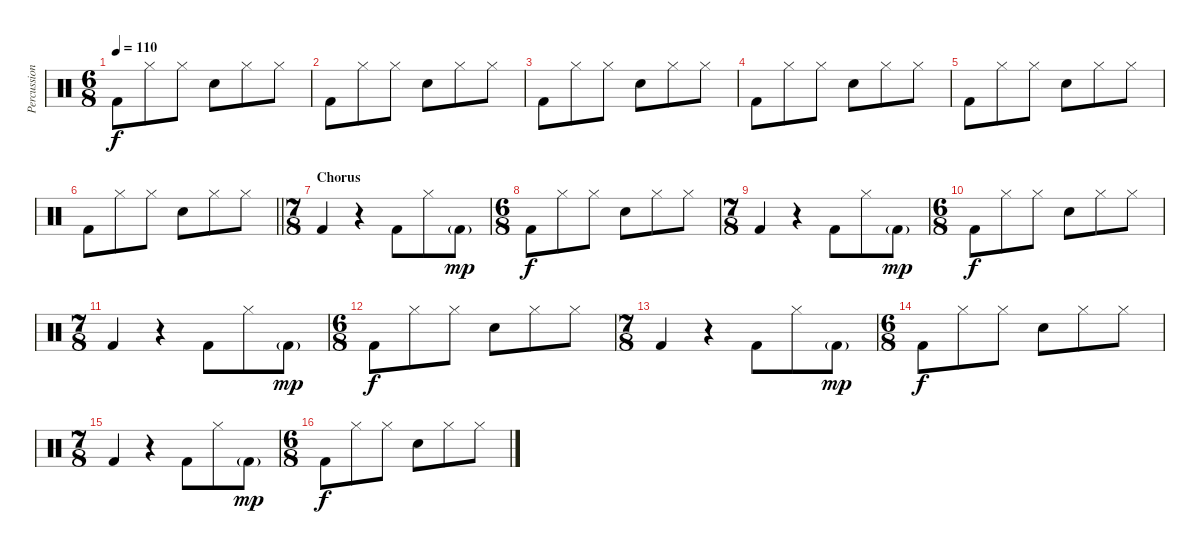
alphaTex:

\track ("Percussion" "Percussion") {instrument percussion}
\staff {score}
\articulation defaults
\ts (6 8)
\tempo 110
\clef neutral
\ks c "Kick (hit) 2".8{dy f} "Hi-Hat (closed)".8 "Hi-Hat (closed)".8 "Snare (hit) 2".8 "Hi-Hat (closed)".8 "Hi-Hat (closed)".8
|
"Kick (hit) 2".8 "Hi-Hat (closed)".8 "Hi-Hat (closed)".8 "Snare (hit) 2".8 "Hi-Hat (closed)".8 "Hi-Hat (closed)".8 |
"Kick (hit) 2".8 "Hi-Hat (closed)".8 "Hi-Hat (closed)".8 "Snare (hit) 2".8 "Hi-Hat (closed)".8 "Hi-Hat (closed)".8 |
"Kick (hit) 2".8 "Hi-Hat (closed)".8 "Hi-Hat (closed)".8 "Snare (hit) 2".8 "Hi-Hat (closed)".8 "Hi-Hat (closed)".8 |
"Kick (hit) 2".8 "Hi-Hat (closed)".8 "Hi-Hat (closed)".8 "Snare (hit) 2".8 "Hi-Hat (closed)".8 "Hi-Hat (closed)".8 |
\barLineRight lightlight "Kick (hit) 2".8 "Hi-Hat (closed)".8 "Hi-Hat (closed)".8 "Snare (hit) 2".8 "Hi-Hat (closed)".8 "Hi-Hat (closed)".8
|
\ts (7 8)
\section ("" "Chorus")
"Kick (hit) 2".4 r.4 "Kick (hit) 2".8 "Hi-Hat (closed)".8 "Kick (hit) 2"{g}.8{dy mp} |
\ts (6 8)
"Kick (hit) 2".8{dy f} "Hi-Hat (closed)".8 "Hi-Hat (closed)".8 "Snare (hit) 2".8 "Hi-Hat (closed)".8 "Hi-Hat (closed)".8 |
\ts (7 8)
"Kick (hit) 2".4 r.4 "Kick (hit) 2".8 "Hi-Hat (closed)".8 "Kick (hit) 2"{g}.8{dy mp} |
\ts (6 8)
"Kick (hit) 2".8{dy f} "Hi-Hat (closed)".8 "Hi-Hat (closed)".8 "Snare (hit) 2".8 "Hi-Hat (closed)".8 "Hi-Hat (closed)".8 |
\ts (7 8)
"Kick (hit) 2".4 r.4 "Kick (hit) 2".8 "Hi-Hat (closed)".8 "Kick (hit) 2"{g}.8{dy mp} |
\ts (6 8)
"Kick (hit) 2".8{dy f} "Hi-Hat (closed)".8 "Hi-Hat (closed)".8 "Snare (hit) 2".8 "Hi-Hat (closed)".8 "Hi-Hat (closed)".8 |
\ts (7 8)
"Kick (hit) 2".4 r.4 "Kick (hit) 2".8 "Hi-Hat (closed)".8 "Kick (hit) 2"{g}.8{dy mp} |
\ts (6 8)
"Kick (hit) 2".8{dy f} "Hi-Hat (closed)".8 "Hi-Hat (closed)".8 "Snare (hit) 2".8 "Hi-Hat (closed)".8 "Hi-Hat (closed)".8 |
\ts (7 8)
"Kick (hit) 2".4 r.4 "Kick (hit) 2".8 "Hi-Hat (closed)".8 "Kick (hit) 2"{g}.8{dy mp} |
\ts (6 8)
"Kick (hit) 2".8{dy f} "Hi-Hat (closed)".8 "Hi-Hat (closed)".8 "Snare (hit) 2".8 "Hi-Hat (closed)".8 "Hi-Hat (closed)".8
